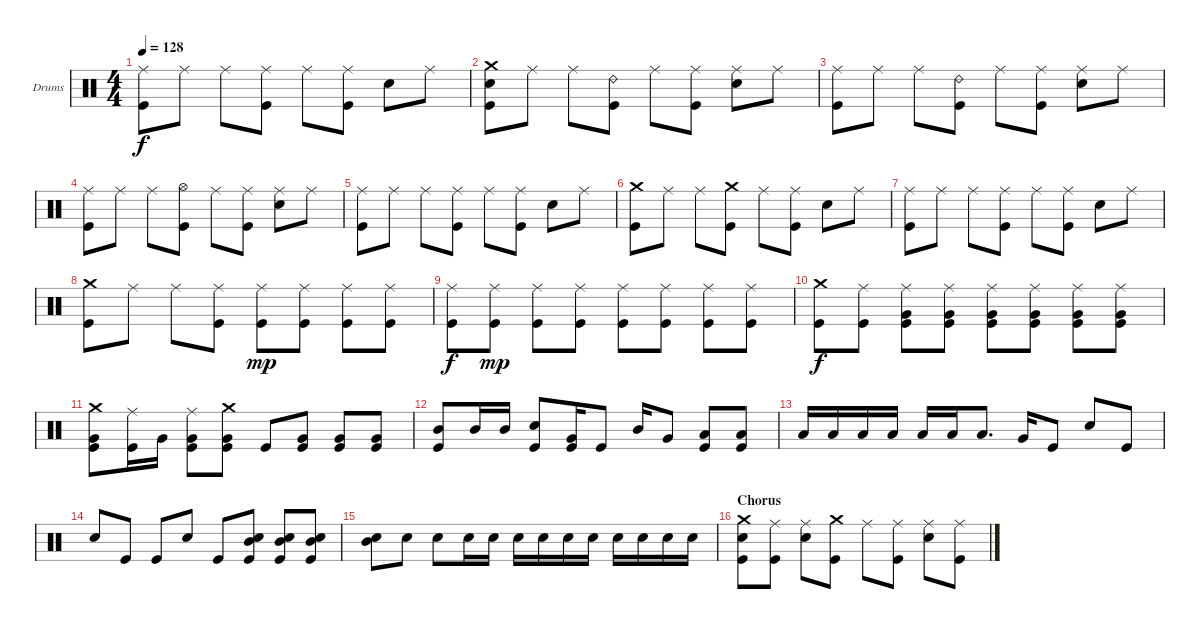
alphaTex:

\defaultSystemsLayout 4
\bracketExtendMode nobrackets
\firstSystemTrackNameOrientation horizontal
\otherSystemsTrackNameOrientation horizontal
\track ("Dave Krusen" "Drums") {instrument percussion}
\staff {score}
\articulation defaults
\ts (4 4)
\tempo 128
\clef neutral
\ks c
("Ride (middle)" "Kick (hit)").8{dy f} "Ride (middle)".8 "Ride (middle)".8 ("Ride (middle)" "Kick (hit)").8 "Ride (middle)".8 ("Ride (middle)" "Kick (hit)").8 "Snare (hit) 2".8 "Ride (middle)".8 |
("Crash medium (hit)" "Snare (hit) 2" "Kick (hit)").8 "Ride (middle)".8 "Ride (middle)".8 ("Ride (bell) 2" "Kick (hit)").8 "Ride (middle)".8 ("Ride (middle)" "Kick (hit)").8 ("Ride (middle)" "Snare (hit) 2").8 "Ride (middle)".8 |
("Ride (middle)" "Kick (hit)").8 "Ride (middle)".8 "Ride (middle)".8 ("Ride (bell) 2" "Kick (hit)").8 "Ride (middle)".8 ("Ride (middle)" "Kick (hit)").8 ("Ride (middle)" "Snare (hit) 2").8 "Ride (middle)".8 |
("Ride (middle)" "Kick (hit)").8 "Ride (middle)".8 "Ride (middle)".8 ("Hi-Hat (open)" "Kick (hit)").8 "Ride (middle)".8 ("Ride (middle)" "Kick (hit)").8 ("Ride (middle)" "Snare (hit) 2").8 "Ride (middle)".8 |
("Ride (middle)" "Kick (hit)").8 "Ride (middle)".8 "Ride (middle)".8 ("Ride (middle)" "Kick (hit)").8 "Ride (middle)".8 ("Ride (middle)" "Kick (hit)").8 "Snare (hit) 2".8 "Ride (middle)".8 |
("Crash medium (hit)" "Kick (hit)").8 "Ride (middle)".8 "Ride (middle)".8 ("Crash medium (hit)" "Kick (hit)").8 "Ride (middle)".8 ("Ride (middle)" "Kick (hit)").8 "Snare (hit) 2".8 "Ride (middle)".8 |
("Ride (middle)" "Kick (hit)").8 "Ride (middle)".8 "Ride (middle)".8 ("Ride (middle)" "Kick (hit)").8 "Ride (middle)".8 ("Ride (middle)" "Kick (hit)").8 "Snare (hit) 2".8 "Ride (middle)".8 |
("Crash medium (hit)" "Kick (hit)").8 "Ride (middle)".8 "Ride (middle)".8 ("Ride (middle)" "Kick (hit)").8 ("Ride (middle)" "Kick (hit)").8{dy mp} ("Ride (middle)" "Kick (hit)").8 ("Ride (middle)" "Kick (hit)").8 ("Ride (middle)" "Kick (hit)").8 |
("Ride (middle)" "Kick (hit)").8{dy f} ("Ride (middle)" "Kick (hit)").8{dy mp} ("Ride (middle)" "Kick (hit)").8 ("Ride (middle)" "Kick (hit)").8 ("Ride (middle)" "Kick (hit)").8 ("Ride (middle)" "Kick (hit)").8 ("Ride (middle)" "Kick (hit)").8 ("Ride (middle)" "Kick (hit)").8 |
("Crash medium (hit)" "Kick (hit)").8{dy f} ("Ride (middle)" "Kick (hit)").8 ("Ride (middle)" "Very Low Tom (hit)" "Kick (hit)").8 ("Ride (middle)" "Very Low Tom (hit)" "Kick (hit)").8 ("Ride (middle)" "Very Low Tom (hit)" "Kick (hit)").8 ("Ride (middle)" "Very Low Tom (hit)" "Kick (hit)").8 ("Ride (middle)" "Very Low Tom (hit)" "Kick (hit)").8 ("Ride (middle)" "Very Low Tom (hit)" "Kick (hit)").8 |
("Crash medium (hit)" "Very Low Tom (hit)" "Kick (hit)").8 ("Ride (middle)" "Kick (hit)").16 "Very Low Tom (hit)".16 ("Ride (middle)" "Very Low Tom (hit)" "Kick (hit)").8 ("Crash medium (hit)" "Very Low Tom (hit)" "Kick (hit)").8 "Kick (hit)".8 ("Very Low Tom (hit)" "Kick (hit)").8 ("Very Low Tom (hit)" "Kick (hit)").8 ("Very Low Tom (hit)" "Kick (hit)").8 |
("Kick (hit)" "Mid Tom (hit)").8 "Mid Tom (hit)".16 "Mid Tom (hit)".16 ("Snare (hit) 2" "Kick (hit)").8 ("Very Low Tom (hit)" "Kick (hit)").16 "Kick (hit)".8 "Mid Tom (hit)".16 "Very Low Tom (hit)".8 ("Low Tom (hit)" "Kick (hit)").8 ("Low Tom (hit)" "Kick (hit)").8 |
"Low Tom (hit)".16 "Low Tom (hit)".16 "Low Tom (hit)".16 "Low Tom (hit)".16 "Low Tom (hit)".16 "Low Tom (hit)".16 "Low Tom (hit)".8{d} "Very Low Tom (hit)".16 "Kick (hit)".8 "Snare (hit) 2".8 "Kick (hit)".8 |
"Snare (hit) 2".8 "Kick (hit)".8 "Kick (hit)".8 "Snare (hit) 2".8 "Kick (hit)".8 ("Snare (hit) 2" "Mid Tom (hit)" "Kick (hit)").8 ("Snare (hit) 2" "Mid Tom (hit)" "Kick (hit)").8 ("Snare (hit) 2" "Mid Tom (hit)" "Kick (hit)").8 |
("Snare (hit) 2" "Mid Tom (hit)").8 "Snare (hit) 2".8 "Snare (hit) 2".8 "Snare (hit) 2".16 "Snare (hit) 2".16 "Snare (hit) 2".16 "Snare (hit) 2".16 "Snare (hit) 2".16 "Snare (hit) 2".16 "Snare (hit) 2".16 "Snare (hit) 2".16 "Snare (hit) 2".16 "Snare (hit) 2".16 |
\section ("" "Chorus")
("Crash medium (hit)" "Snare (hit) 2" "Kick (hit)").8 ("Ride (middle)" "Kick (hit)").8 ("Ride (middle)" "Snare (hit) 2").8 ("Crash medium (hit)" "Kick (hit)").8 "Ride (middle)".8 ("Ride (middle)" "Kick (hit)").8 ("Ride (middle)" "Snare (hit) 2").8 ("Ride (middle)" "Kick (hit)").8
